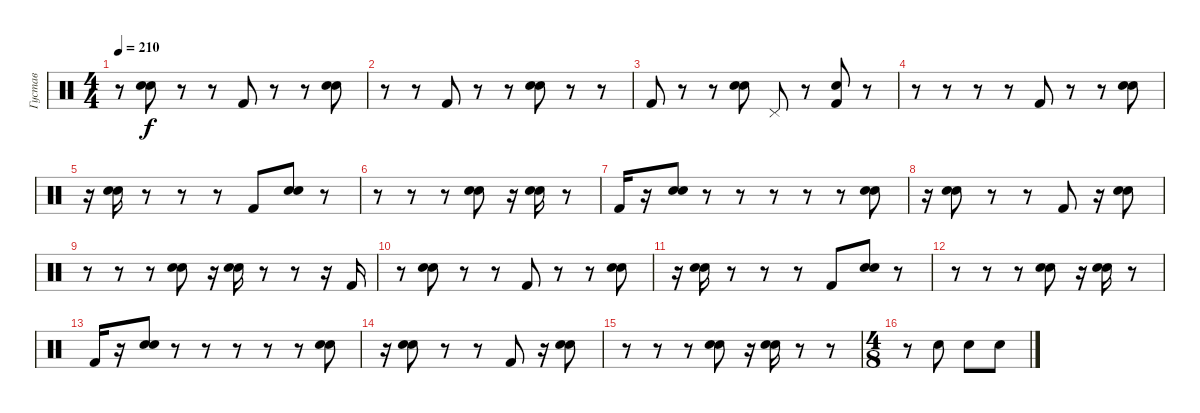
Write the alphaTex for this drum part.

\track ("Густав" "Густав") {instrument percussion}
\staff {score}
\articulation defaults
\ts (4 4)
\tempo 210
\clef neutral
\ks c
r.8{dy f} ("Electric Snare (hit)" "Snare (hit) 2").8 r.8 r.8 "Kick (hit) 2".8 r.8 r.8 ("Electric Snare (hit)" "Snare (hit) 2").8 |
r.8 r.8 "Kick (hit) 2".8 r.8 r.8 ("Electric Snare (hit)" "Snare (hit) 2").8 r.8 r.8 |
"Kick (hit) 2".8 r.8 r.8 ("Electric Snare (hit)" "Snare (hit) 2").8 "Pedal Hi-Hat (hit)".8 r.8 ("Snare (hit) 2" "Kick (hit) 2").8 r.8 |
r.8 r.8 r.8 r.8 "Kick (hit) 2".8 r.8 r.8 ("Snare (hit) 2" "Electric Snare (hit)").8 |
r.16 ("Snare (hit) 2" "Electric Snare (hit)").16 r.8 r.8 r.8 "Kick (hit) 2".8 ("Snare (hit) 2" "Electric Snare (hit)").8 r.8 |
r.8 r.8 r.8 ("Snare (hit) 2" "Electric Snare (hit)").8 r.16 ("Snare (hit) 2" "Electric Snare (hit)").16 r.8 |
"Kick (hit) 2".16 r.16 ("Snare (hit) 2" "Electric Snare (hit)").8 r.8 r.8 r.8 r.8 r.8 ("Snare (hit) 2" "Electric Snare (hit)").8 |
r.16 ("Snare (hit) 2" "Electric Snare (hit)").8 r.8 r.8 "Kick (hit) 2".8 r.16 ("Snare (hit) 2" "Electric Snare (hit)").8 |
r.8 r.8 r.8 ("Snare (hit) 2" "Electric Snare (hit)").8 r.16 ("Snare (hit) 2" "Electric Snare (hit)").16 r.8 r.8 r.16 "Kick (hit) 2".16 |
r.8 ("Snare (hit) 2" "Electric Snare (hit)").8 r.8 r.8 "Kick (hit) 2".8 r.8 r.8 ("Snare (hit) 2" "Electric Snare (hit)").8 |
r.16 ("Snare (hit) 2" "Electric Snare (hit)").16 r.8 r.8 r.8 "Kick (hit) 2".8 ("Snare (hit) 2" "Electric Snare (hit)").8 r.8 |
r.8 r.8 r.8 ("Snare (hit) 2" "Electric Snare (hit)").8 r.16 ("Snare (hit) 2" "Electric Snare (hit)").16 r.8 |
"Kick (hit) 2".16 r.16 ("Snare (hit) 2" "Electric Snare (hit)").8 r.8 r.8 r.8 r.8 r.8 ("Snare (hit) 2" "Electric Snare (hit)").8 |
r.16 ("Snare (hit) 2" "Electric Snare (hit)").8 r.8 r.8 "Kick (hit) 2".8 r.16 ("Snare (hit) 2" "Electric Snare (hit)").8 |
r.8 r.8 r.8 ("Snare (hit) 2" "Electric Snare (hit)").8 r.16 ("Snare (hit) 2" "Electric Snare (hit)").16 r.8 r.8 |
\ts (4 8)
r.8 "Snare (hit) 2".8 "Snare (hit) 2".8 "Snare (hit) 2".8
